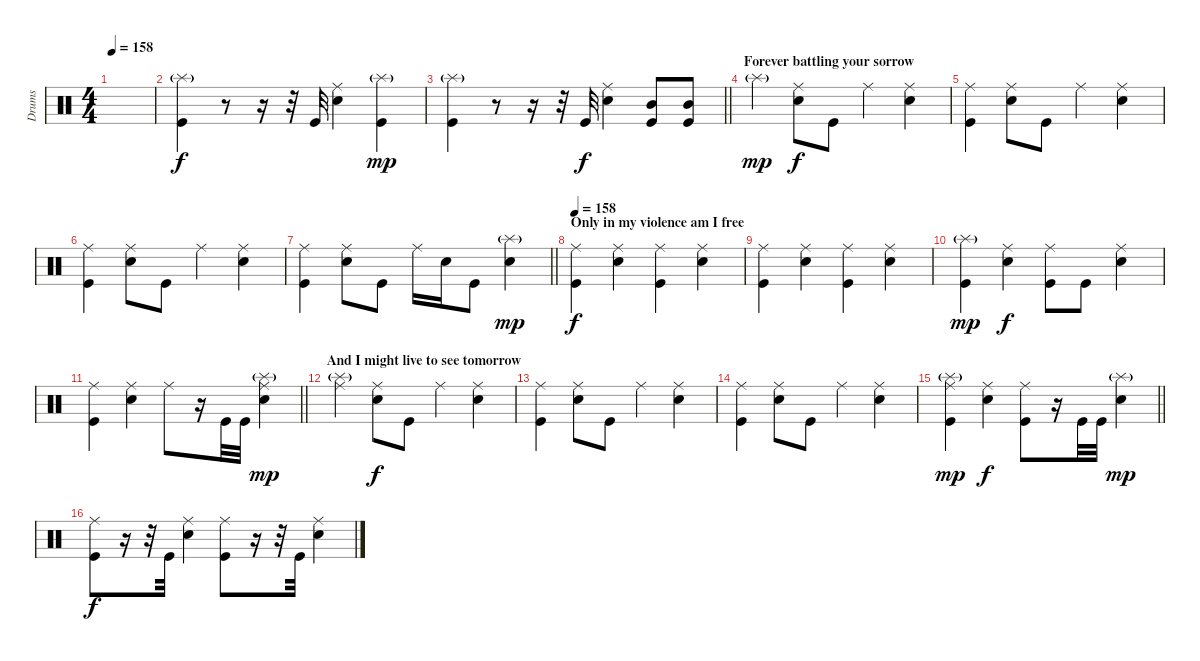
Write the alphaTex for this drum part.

\track ("Drums" "Drums") {instrument percussion}
\staff {score}
\articulation defaults
\ts (4 4)
\tempo 158
\clef neutral
\ks c
|
("Splash (hit)"{g} "Kick (hit)").4 r.8 r.16 r.32 "Kick (hit)".32{dy f} ("Ride (middle)" "Snare (hit) 2").4 ("Splash (hit)"{g} "Kick (hit)").4{dy mp} |
\barLineRight lightlight
("Splash (hit)"{g} "Kick (hit)").4 r.8 r.16 r.32 "Kick (hit)".32{dy f} ("Ride (middle)" "Snare (hit) 2").4 ("Mid Tom (hit)" "Kick (hit)").8 ("Mid Tom (hit)" "Kick (hit)").8 |
\section ("" "Forever battling your sorrow")
"Splash (hit)"{g}.4{dy mp} ("Ride (middle)" "Snare (hit) 2").8{dy f} "Kick (hit)".8 "Ride (middle)".4 ("Ride (middle)" "Snare (hit) 2").4 |
("Ride (middle)" "Kick (hit)").4 ("Ride (middle)" "Snare (hit) 2").8 "Kick (hit)".8 "Ride (middle)".4 ("Ride (middle)" "Snare (hit) 2").4 |
("Ride (middle)" "Kick (hit)").4 ("Ride (middle)" "Snare (hit) 2").8 "Kick (hit)".8 "Ride (middle)".4 ("Ride (middle)" "Snare (hit) 2").4 |
\barLineRight lightlight
("Ride (middle)" "Kick (hit)").4 ("Ride (middle)" "Snare (hit) 2").8 "Kick (hit)".8 "Ride (middle)".16 "Snare (hit) 2".16 "Kick (hit)".8 ("Splash (hit)"{g} "Snare (hit) 2").4{dy mp} |
\section ("" "Only in my violence am I free")
\tempo 160
\tempo 158
("Ride (middle)" "Kick (hit)").4{dy f} ("Ride (middle)" "Snare (hit) 2").4 ("Ride (middle)" "Kick (hit)").4 ("Ride (middle)" "Snare (hit) 2").4 |
("Ride (middle)" "Kick (hit)").4 ("Ride (middle)" "Snare (hit) 2").4 ("Ride (middle)" "Kick (hit)").4 ("Ride (middle)" "Snare (hit) 2").4 |
("Splash (hit)"{g} "Kick (hit)").4{dy mp} ("Ride (middle)" "Snare (hit) 2").4{dy f} ("Ride (middle)" "Kick (hit)").8 "Kick (hit)".8 ("Ride (middle)" "Snare (hit) 2").4 |
\barLineRight lightlight
("Ride (middle)" "Kick (hit)").4 ("Ride (middle)" "Snare (hit) 2").4 "Ride (middle)".8 r.16 "Kick (hit)".32 "Kick (hit)".32 ("Splash (hit)"{g} "Ride (middle)" "Snare (hit) 2").4{dy mp} |
\section ("" "And I might live to see tomorrow")
("Splash (hit)"{g} "Ride (middle)").4 ("Ride (middle)" "Snare (hit) 2").8{dy f} "Kick (hit)".8 "Ride (middle)".4 ("Ride (middle)" "Snare (hit) 2").4 |
("Ride (middle)" "Kick (hit)").4 ("Ride (middle)" "Snare (hit) 2").8 "Kick (hit)".8 "Ride (middle)".4 ("Ride (middle)" "Snare (hit) 2").4 |
("Ride (middle)" "Kick (hit)").4 ("Ride (middle)" "Snare (hit) 2").8 "Kick (hit)".8 "Ride (middle)".4 ("Ride (middle)" "Snare (hit) 2").4 |
\barLineRight lightlight
("Splash (hit)"{g} "Ride (middle)" "Kick (hit)").4{dy mp} ("Ride (middle)" "Snare (hit) 2").4{dy f} ("Ride (middle)" "Kick (hit)").8 r.16 "Kick (hit)".32 "Kick (hit)".32 ("Splash (hit)"{g} "Snare (hit) 2").4{dy mp} |
("Ride (middle)" "Kick (hit)").8{dy f} r.16 r.32 "Kick (hit)".32 ("Ride (middle)" "Snare (hit) 2").4 ("Ride (middle)" "Kick (hit)").8 r.16 r.32 "Kick (hit)".32 ("Ride (middle)" "Snare (hit) 2").4
